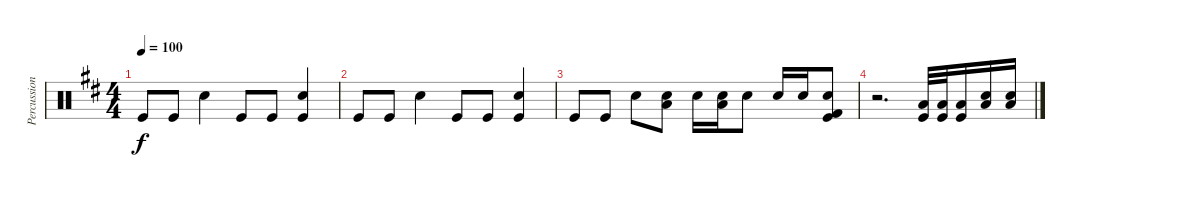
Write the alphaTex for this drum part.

\track ("Percussion" "Percussion") {instrument percussion}
\staff {score}
\articulation defaults
\ts (4 4)
\tempo 100
\clef neutral
\ks d "Kick (hit)".8{dy f} "Kick (hit)".8 "Electric Snare (hit)".4 "Kick (hit)".8 "Kick (hit)".8
("Electric Snare (hit)" "Kick (hit)").4 |
"Kick (hit)".8 "Kick (hit)".8 "Electric Snare (hit)".4 "Kick (hit)".8 "Kick (hit)".8 ("Electric Snare (hit)" "Kick (hit)").4 |
"Kick (hit)".8 "Kick (hit)".8 "Electric Snare (hit)".8 ("Low Tom (hit)" "Electric Snare (hit)").8 "Electric Snare (hit)".16 ("Low Tom (hit)" "Electric Snare (hit)").16 "Electric Snare (hit)".8 "Electric Snare (hit)".16 "Electric Snare (hit)".16 ("Electric Snare (hit)" "Kick (hit)" "Kick (hit) 2").8 |
r.2{d} ("Low Tom (hit)" "Kick (hit)").32 ("Low Tom (hit)" "Kick (hit)").32 ("Low Tom (hit)" "Kick (hit)").16 ("Low Tom (hit)" "Electric Snare (hit)").16 ("Low Tom (hit)" "Electric Snare (hit)").16
